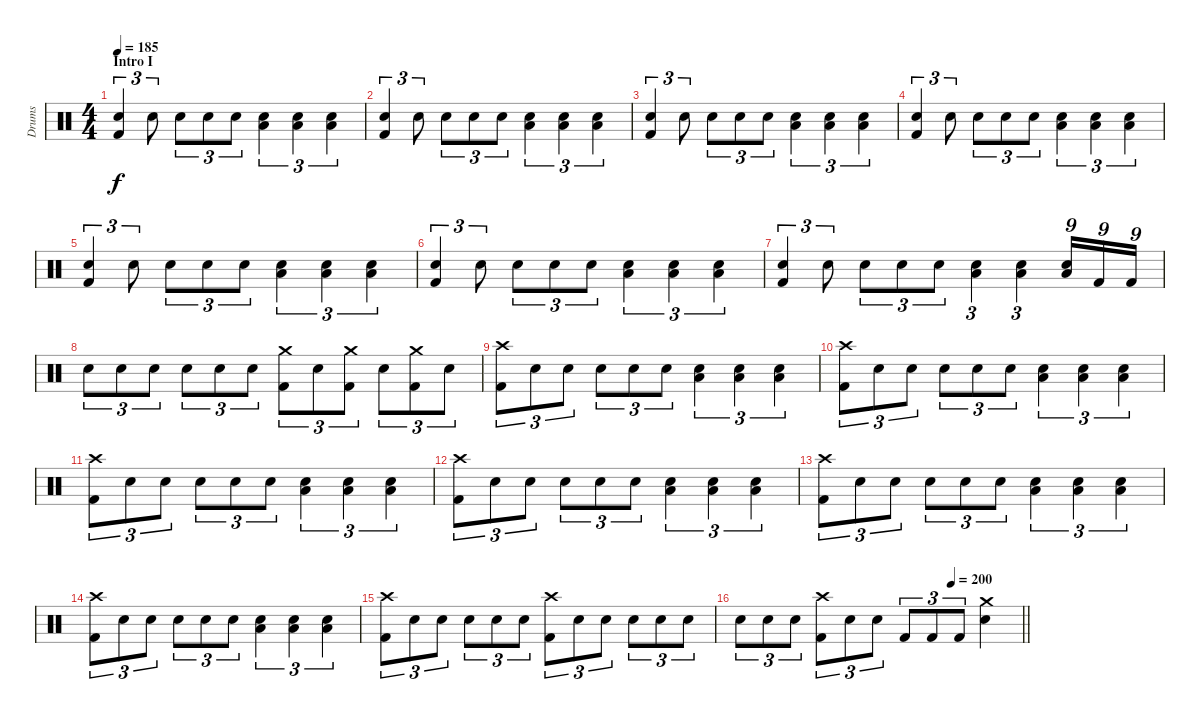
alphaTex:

\track ("Drums" "Drums") {instrument percussion}
\staff {score}
\articulation defaults
\ts (4 4)
\section ("" "Intro I")
\tempo 185
\clef neutral
\ks c
("Snare (hit) 2" "Kick (hit) 2").4{tu (3 2) dy f} "Snare (hit) 2".8{tu (3 2)} "Snare (hit) 2".8{tu (3 2)} "Snare (hit) 2".8{tu (3 2)} "Snare (hit) 2".8{tu (3 2)} ("Snare (hit) 2" "Low Tom (hit)").4{tu (3 2)} ("Snare (hit) 2" "Low Tom (hit)").4{tu (3 2)} ("Snare (hit) 2" "Low Tom (hit)").4{tu (3 2)} |
("Snare (hit) 2" "Kick (hit) 2").4{tu (3 2)} "Snare (hit) 2".8{tu (3 2)} "Snare (hit) 2".8{tu (3 2)} "Snare (hit) 2".8{tu (3 2)} "Snare (hit) 2".8{tu (3 2)} ("Snare (hit) 2" "Low Tom (hit)").4{tu (3 2)} ("Snare (hit) 2" "Low Tom (hit)").4{tu (3 2)} ("Snare (hit) 2" "Low Tom (hit)").4{tu (3 2)} |
("Snare (hit) 2" "Kick (hit) 2").4{tu (3 2)} "Snare (hit) 2".8{tu (3 2)} "Snare (hit) 2".8{tu (3 2)} "Snare (hit) 2".8{tu (3 2)} "Snare (hit) 2".8{tu (3 2)} ("Snare (hit) 2" "Low Tom (hit)").4{tu (3 2)} ("Snare (hit) 2" "Low Tom (hit)").4{tu (3 2)} ("Snare (hit) 2" "Low Tom (hit)").4{tu (3 2)} |
("Snare (hit) 2" "Kick (hit) 2").4{tu (3 2)} "Snare (hit) 2".8{tu (3 2)} "Snare (hit) 2".8{tu (3 2)} "Snare (hit) 2".8{tu (3 2)} "Snare (hit) 2".8{tu (3 2)} ("Snare (hit) 2" "Low Tom (hit)").4{tu (3 2)} ("Snare (hit) 2" "Low Tom (hit)").4{tu (3 2)} ("Snare (hit) 2" "Low Tom (hit)").4{tu (3 2)} |
("Snare (hit) 2" "Kick (hit) 2").4{tu (3 2)} "Snare (hit) 2".8{tu (3 2)} "Snare (hit) 2".8{tu (3 2)} "Snare (hit) 2".8{tu (3 2)} "Snare (hit) 2".8{tu (3 2)} ("Snare (hit) 2" "Low Tom (hit)").4{tu (3 2)} ("Snare (hit) 2" "Low Tom (hit)").4{tu (3 2)} ("Snare (hit) 2" "Low Tom (hit)").4{tu (3 2)} |
("Snare (hit) 2" "Kick (hit) 2").4{tu (3 2)} "Snare (hit) 2".8{tu (3 2)} "Snare (hit) 2".8{tu (3 2)} "Snare (hit) 2".8{tu (3 2)} "Snare (hit) 2".8{tu (3 2)} ("Snare (hit) 2" "Low Tom (hit)").4{tu (3 2)} ("Snare (hit) 2" "Low Tom (hit)").4{tu (3 2)} ("Snare (hit) 2" "Low Tom (hit)").4{tu (3 2)} |
("Snare (hit) 2" "Kick (hit) 2").4{tu (3 2)} "Snare (hit) 2".8{tu (3 2)} "Snare (hit) 2".8{tu (3 2)} "Snare (hit) 2".8{tu (3 2)} "Snare (hit) 2".8{tu (3 2)} ("Snare (hit) 2" "Low Tom (hit)").4{tu (3 2)} ("Snare (hit) 2" "Low Tom (hit)").4{tu (3 2)} ("Snare (hit) 2" "Low Tom (hit)").16{tu (9 8)} "Kick (hit) 2".16{tu (9 8)} "Kick (hit) 2".16{tu (9 8)} |
"Snare (hit) 2".8{tu (3 2)} "Snare (hit) 2".8{tu (3 2)} "Snare (hit) 2".8{tu (3 2)} "Snare (hit) 2".8{tu (3 2)} "Snare (hit) 2".8{tu (3 2)} "Snare (hit) 2".8{tu (3 2)} ("Crash medium (hit)" "Kick (hit) 2").8{tu (3 2)} "Snare (hit) 2".8{tu (3 2)} ("Crash medium (hit)" "Kick (hit) 2").8{tu (3 2)} "Snare (hit) 2".8{tu (3 2)} ("Crash medium (hit)" "Kick (hit) 2").8{tu (3 2)} "Snare (hit) 2".8{tu (3 2)} |
("Crash high (hit)" "Kick (hit) 2").8{tu (3 2)} "Snare (hit) 2".8{tu (3 2)} "Snare (hit) 2".8{tu (3 2)} "Snare (hit) 2".8{tu (3 2)} "Snare (hit) 2".8{tu (3 2)} "Snare (hit) 2".8{tu (3 2)} ("Snare (hit) 2" "Low Tom (hit)").4{tu (3 2)} ("Snare (hit) 2" "Low Tom (hit)").4{tu (3 2)} ("Snare (hit) 2" "Low Tom (hit)").4{tu (3 2)} |
("Crash high (hit)" "Kick (hit) 2").8{tu (3 2)} "Snare (hit) 2".8{tu (3 2)} "Snare (hit) 2".8{tu (3 2)} "Snare (hit) 2".8{tu (3 2)} "Snare (hit) 2".8{tu (3 2)} "Snare (hit) 2".8{tu (3 2)} ("Snare (hit) 2" "Low Tom (hit)").4{tu (3 2)} ("Snare (hit) 2" "Low Tom (hit)").4{tu (3 2)} ("Snare (hit) 2" "Low Tom (hit)").4{tu (3 2)} |
("Crash high (hit)" "Kick (hit) 2").8{tu (3 2)} "Snare (hit) 2".8{tu (3 2)} "Snare (hit) 2".8{tu (3 2)} "Snare (hit) 2".8{tu (3 2)} "Snare (hit) 2".8{tu (3 2)} "Snare (hit) 2".8{tu (3 2)} ("Snare (hit) 2" "Low Tom (hit)").4{tu (3 2)} ("Snare (hit) 2" "Low Tom (hit)").4{tu (3 2)} ("Snare (hit) 2" "Low Tom (hit)").4{tu (3 2)} |
("Crash high (hit)" "Kick (hit) 2").8{tu (3 2)} "Snare (hit) 2".8{tu (3 2)} "Snare (hit) 2".8{tu (3 2)} "Snare (hit) 2".8{tu (3 2)} "Snare (hit) 2".8{tu (3 2)} "Snare (hit) 2".8{tu (3 2)} ("Snare (hit) 2" "Low Tom (hit)").4{tu (3 2)} ("Snare (hit) 2" "Low Tom (hit)").4{tu (3 2)} ("Snare (hit) 2" "Low Tom (hit)").4{tu (3 2)} |
("Crash high (hit)" "Kick (hit) 2").8{tu (3 2)} "Snare (hit) 2".8{tu (3 2)} "Snare (hit) 2".8{tu (3 2)} "Snare (hit) 2".8{tu (3 2)} "Snare (hit) 2".8{tu (3 2)} "Snare (hit) 2".8{tu (3 2)} ("Snare (hit) 2" "Low Tom (hit)").4{tu (3 2)} ("Snare (hit) 2" "Low Tom (hit)").4{tu (3 2)} ("Snare (hit) 2" "Low Tom (hit)").4{tu (3 2)} |
("Crash high (hit)" "Kick (hit) 2").8{tu (3 2)} "Snare (hit) 2".8{tu (3 2)} "Snare (hit) 2".8{tu (3 2)} "Snare (hit) 2".8{tu (3 2)} "Snare (hit) 2".8{tu (3 2)} "Snare (hit) 2".8{tu (3 2)} ("Snare (hit) 2" "Low Tom (hit)").4{tu (3 2)} ("Snare (hit) 2" "Low Tom (hit)").4{tu (3 2)} ("Snare (hit) 2" "Low Tom (hit)").4{tu (3 2)} |
("Crash high (hit)" "Kick (hit) 2").8{tu (3 2)} "Snare (hit) 2".8{tu (3 2)} "Snare (hit) 2".8{tu (3 2)} "Snare (hit) 2".8{tu (3 2)} "Snare (hit) 2".8{tu (3 2)} "Snare (hit) 2".8{tu (3 2)} ("Crash high (hit)" "Kick (hit) 2").8{tu (3 2)} "Snare (hit) 2".8{tu (3 2)} "Snare (hit) 2".8{tu (3 2)} "Snare (hit) 2".8{tu (3 2)} "Snare (hit) 2".8{tu (3 2)} "Snare (hit) 2".8{tu (3 2)} |
\tempo (200 0.75)
\barLineRight lightlight "Snare (hit) 2".8{tu (3 2)} "Snare (hit) 2".8{tu (3 2)} "Snare (hit) 2".8{tu (3 2)}
("Crash high (hit)" "Kick (hit) 2").8{tu (3 2)} "Snare (hit) 2".8{tu (3 2)} "Snare (hit) 2".8{tu (3 2)} "Kick (hit) 2".8{tu (3 2)} "Kick (hit) 2".8{tu (3 2)} "Kick (hit) 2".8{tu (3 2)} ("Crash medium (hit)" "Snare (hit) 2").4
